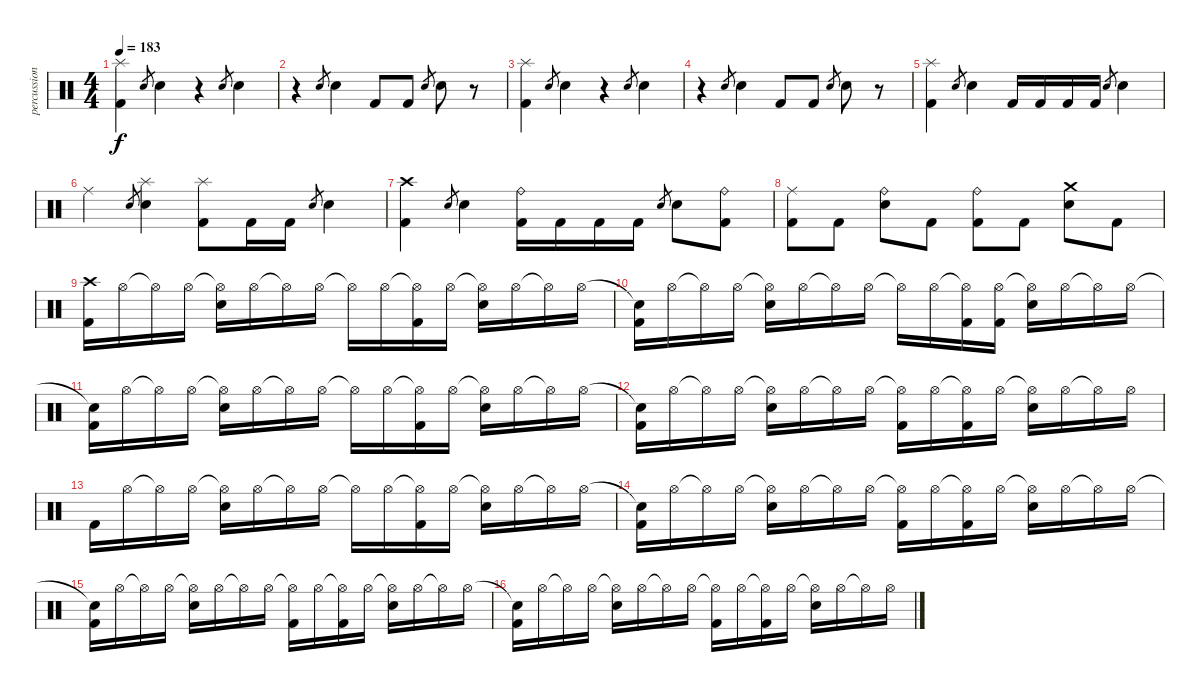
\track ("percussion" "percussion") {instrument percussion}
\staff {score}
\articulation defaults
\ts (4 4)
\tempo 183
\clef neutral
\ks c
("Splash (hit)" "Kick (hit) 2").4{dy f} "Electric Snare (hit)".8{gr} "Electric Snare (hit)".4 r.4 "Electric Snare (hit)".8{gr} "Electric Snare (hit)".4 |
r.4 "Electric Snare (hit)".8{gr} "Electric Snare (hit)".4 "Kick (hit) 2".8 "Kick (hit) 2".8 "Electric Snare (hit)".8{gr} "Electric Snare (hit)".8 r.8 |
("Splash (hit)" "Kick (hit) 2").4 "Electric Snare (hit)".8{gr} "Electric Snare (hit)".4 r.4 "Electric Snare (hit)".8{gr} "Electric Snare (hit)".4 |
r.4 "Electric Snare (hit)".8{gr} "Electric Snare (hit)".4 "Kick (hit) 2".8 "Kick (hit) 2".8 "Electric Snare (hit)".8{gr} "Electric Snare (hit)".8 r.8 |
("Splash (hit)" "Kick (hit) 2").4 "Electric Snare (hit)".8{gr} "Electric Snare (hit)".4 "Kick (hit) 2".16 "Kick (hit) 2".16 "Kick (hit) 2".16 "Kick (hit) 2".16 "Electric Snare (hit)".8{gr} "Electric Snare (hit)".4 |
"Ride (middle)".4 "Electric Snare (hit)".8{gr} ("Splash (hit)" "Electric Snare (hit)").4 ("Splash (hit)" "Kick (hit) 2").8 "Kick (hit) 2".16 "Kick (hit) 2".16 "Electric Snare (hit)".8{gr} "Electric Snare (hit)".4 |
("Crash high (hit)" "Kick (hit) 2").4 "Electric Snare (hit)".8{gr} "Electric Snare (hit)".4 ("Ride (bell)" "Kick (hit) 2").16 "Kick (hit) 2".16 "Kick (hit) 2".16 "Kick (hit) 2".16 "Electric Snare (hit)".8{gr} "Electric Snare (hit)".8 ("Ride (bell)" "Kick (hit) 2").8 |
("Ride (middle)" "Kick (hit) 2").8 "Kick (hit) 2".8 ("Ride (bell)" "Electric Snare (hit)").8 "Kick (hit) 2".8 ("Ride (bell)" "Kick (hit) 2").8 "Kick (hit) 2".8 ("Crash medium (hit)" "Electric Snare (hit)").8 "Kick (hit) 2".8 |
("Crash high (hit)" "Kick (hit) 2").16 "Hi-Hat (open)".16 "Hi-Hat (open)"{t}.16 "Hi-Hat (open)".16 ("Hi-Hat (open)"{t} "Electric Snare (hit)").16 "Hi-Hat (open)".16 "Hi-Hat (open)"{t}.16 "Hi-Hat (open)".16 "Hi-Hat (open)"{t}.16 "Hi-Hat (open)".16 ("Hi-Hat (open)"{t} "Kick (hit) 2").16 "Hi-Hat (open)".16 ("Hi-Hat (open)"{t} "Electric Snare (hit)").16 "Hi-Hat (open)".16 "Hi-Hat (open)"{t}.16 "Hi-Hat (open)".16 |
("Snare (hit)"{t} "Kick (hit) 2").16 "Hi-Hat (open)".16 "Hi-Hat (open)"{t}.16 "Hi-Hat (open)".16 ("Hi-Hat (open)"{t} "Electric Snare (hit)").16 "Hi-Hat (open)".16 "Hi-Hat (open)"{t}.16 "Hi-Hat (open)".16 "Hi-Hat (open)"{t}.16 "Hi-Hat (open)".16 ("Hi-Hat (open)"{t} "Kick (hit) 2").16 ("Hi-Hat (open)" "Kick (hit) 2").16 ("Hi-Hat (open)"{t} "Electric Snare (hit)").16 "Hi-Hat (open)".16 "Hi-Hat (open)"{t}.16 "Hi-Hat (open)".16 |
("Snare (hit)"{t} "Kick (hit) 2").16 "Hi-Hat (open)".16 "Hi-Hat (open)"{t}.16 "Hi-Hat (open)".16 ("Hi-Hat (open)"{t} "Electric Snare (hit)").16 "Hi-Hat (open)".16 "Hi-Hat (open)"{t}.16 "Hi-Hat (open)".16 "Hi-Hat (open)"{t}.16 "Hi-Hat (open)".16 ("Hi-Hat (open)"{t} "Kick (hit) 2").16 "Hi-Hat (open)".16 ("Hi-Hat (open)"{t} "Electric Snare (hit)").16 "Hi-Hat (open)".16 "Hi-Hat (open)"{t}.16 "Hi-Hat (open)".16 |
("Snare (hit)"{t} "Kick (hit) 2").16 "Hi-Hat (open)".16 "Hi-Hat (open)"{t}.16 "Hi-Hat (open)".16 ("Hi-Hat (open)"{t} "Electric Snare (hit)").16 "Hi-Hat (open)".16 "Hi-Hat (open)"{t}.16 "Hi-Hat (open)".16 ("Hi-Hat (open)"{t} "Kick (hit) 2").16 "Hi-Hat (open)".16 ("Hi-Hat (open)"{t} "Kick (hit) 2").16 "Hi-Hat (open)".16 ("Hi-Hat (open)"{t} "Electric Snare (hit)").16 "Hi-Hat (open)".16 "Hi-Hat (open)"{t}.16 "Hi-Hat (open)".16 |
"Kick (hit) 2".16 "Hi-Hat (open)".16 "Hi-Hat (open)"{t}.16 "Hi-Hat (open)".16 ("Hi-Hat (open)"{t} "Electric Snare (hit)").16 "Hi-Hat (open)".16 "Hi-Hat (open)"{t}.16 "Hi-Hat (open)".16 "Hi-Hat (open)"{t}.16 "Hi-Hat (open)".16 ("Hi-Hat (open)"{t} "Kick (hit) 2").16 "Hi-Hat (open)".16 ("Hi-Hat (open)"{t} "Electric Snare (hit)").16 "Hi-Hat (open)".16 "Hi-Hat (open)"{t}.16 "Hi-Hat (open)".16 |
("Snare (hit)"{t} "Kick (hit) 2").16 "Hi-Hat (open)".16 "Hi-Hat (open)"{t}.16 "Hi-Hat (open)".16 ("Hi-Hat (open)"{t} "Electric Snare (hit)").16 "Hi-Hat (open)".16 "Hi-Hat (open)"{t}.16 "Hi-Hat (open)".16 ("Hi-Hat (open)"{t} "Kick (hit) 2").16 "Hi-Hat (open)".16 ("Hi-Hat (open)"{t} "Kick (hit) 2").16 "Hi-Hat (open)".16 ("Hi-Hat (open)"{t} "Electric Snare (hit)").16 "Hi-Hat (open)".16 "Hi-Hat (open)"{t}.16 "Hi-Hat (open)".16 |
("Snare (hit)"{t} "Kick (hit) 2").16 "Hi-Hat (open)".16 "Hi-Hat (open)"{t}.16 "Hi-Hat (open)".16 ("Hi-Hat (open)"{t} "Electric Snare (hit)").16 "Hi-Hat (open)".16 "Hi-Hat (open)"{t}.16 "Hi-Hat (open)".16 ("Hi-Hat (open)"{t} "Kick (hit) 2").16 "Hi-Hat (open)".16 ("Hi-Hat (open)"{t} "Kick (hit) 2").16 "Hi-Hat (open)".16 ("Hi-Hat (open)"{t} "Electric Snare (hit)").16 "Hi-Hat (open)".16 "Hi-Hat (open)"{t}.16 "Hi-Hat (open)".16 |
("Snare (hit)"{t} "Kick (hit) 2").16 "Hi-Hat (open)".16 "Hi-Hat (open)"{t}.16 "Hi-Hat (open)".16 ("Hi-Hat (open)"{t} "Electric Snare (hit)").16 "Hi-Hat (open)".16 "Hi-Hat (open)"{t}.16 "Hi-Hat (open)".16 ("Hi-Hat (open)"{t} "Kick (hit) 2").16 "Hi-Hat (open)".16 ("Hi-Hat (open)"{t} "Kick (hit) 2").16 "Hi-Hat (open)".16 ("Hi-Hat (open)"{t} "Electric Snare (hit)").16 "Hi-Hat (open)".16 "Hi-Hat (open)"{t}.16 "Hi-Hat (open)".16
